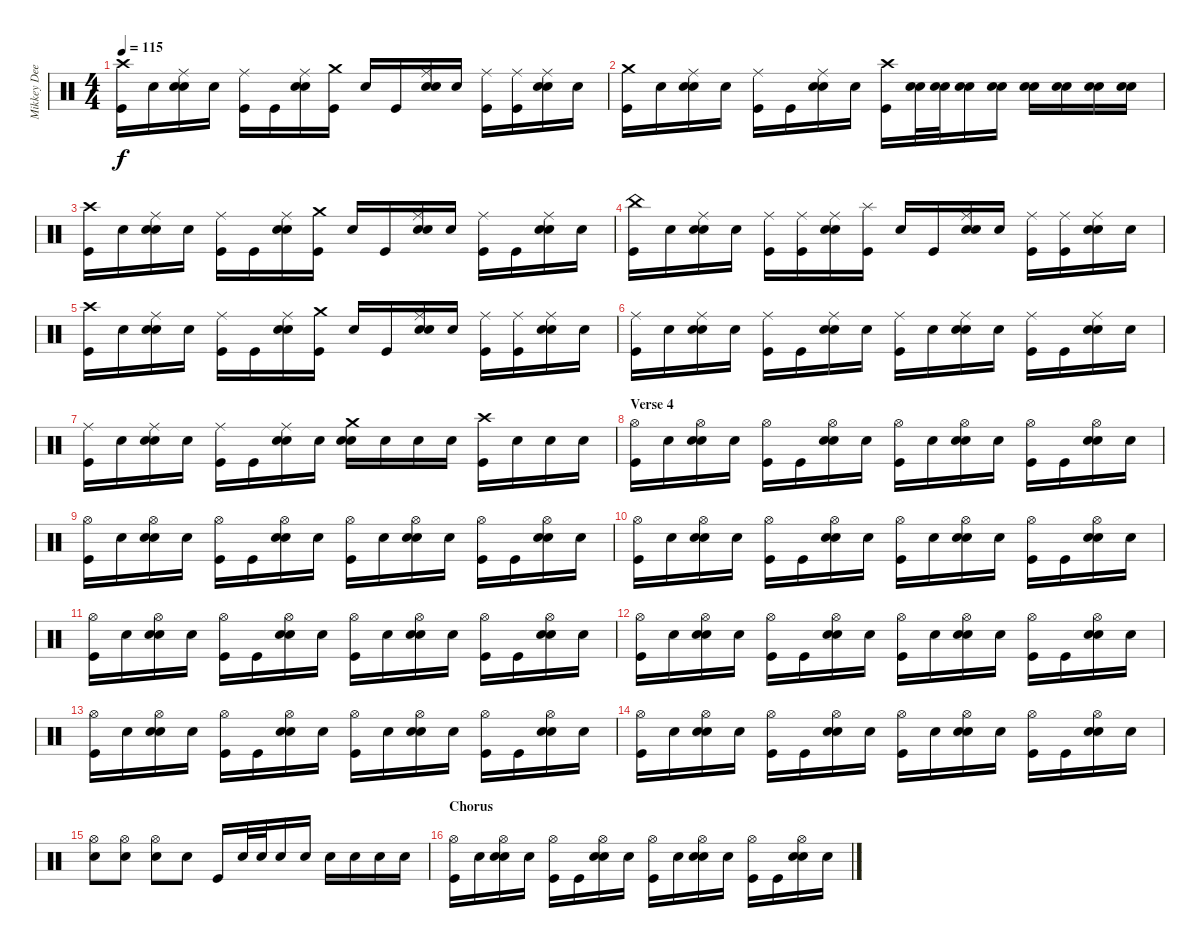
\track ("Mikkey Dee" "Mikkey Dee") {instrument percussion}
\staff {score}
\articulation defaults
\ts (4 4)
\tempo 115
\clef neutral
\ks c
("Crash high (hit)" "Kick (hit)").16{dy f} "Snare (hit)".16 ("Ride (middle)" "Electric Snare (hit)" "Snare (hit)").16 "Snare (hit)".16 ("Ride (middle)" "Kick (hit)").16 "Kick (hit)".16 ("Ride (middle)" "Electric Snare (hit)" "Snare (hit)").16 ("Crash medium (hit)" "Kick (hit)").16 "Snare (hit)".16 "Kick (hit)".16 ("Ride (middle)" "Electric Snare (hit)" "Snare (hit)").16 "Snare (hit)".16 ("Ride (middle)" "Kick (hit)").16 ("Ride (middle)" "Kick (hit)").16 ("Ride (middle)" "Electric Snare (hit)" "Snare (hit)").16 "Snare (hit)".16 |
("Crash medium (hit)" "Kick (hit)").16 "Snare (hit)".16 ("Ride (middle)" "Electric Snare (hit)" "Snare (hit)").16 "Snare (hit)".16 ("Ride (middle)" "Kick (hit)").16 "Kick (hit)".16 ("Ride (middle)" "Electric Snare (hit)" "Snare (hit)").16 "Snare (hit)".16 ("Crash high (hit)" "Kick (hit)").16 ("Electric Snare (hit)" "Snare (hit)").32 ("Electric Snare (hit)" "Snare (hit)").32 ("Electric Snare (hit)" "Snare (hit)").16 ("Electric Snare (hit)" "Snare (hit)").16 ("Electric Snare (hit)" "Snare (hit)").16 ("Electric Snare (hit)" "Snare (hit)").16 ("Electric Snare (hit)" "Snare (hit)").16 ("Electric Snare (hit)" "Snare (hit)").16 |
("Crash high (hit)" "Kick (hit)").16 "Snare (hit)".16 ("Ride (middle)" "Electric Snare (hit)" "Snare (hit)").16 "Snare (hit)".16 ("Ride (middle)" "Kick (hit)").16 "Kick (hit)".16 ("Ride (middle)" "Electric Snare (hit)" "Snare (hit)").16 ("Crash medium (hit)" "Kick (hit)").16 "Snare (hit)".16 "Kick (hit)".16 ("Ride (middle)" "Electric Snare (hit)" "Snare (hit)").16 "Snare (hit)".16 ("Ride (middle)" "Kick (hit)").16 "Kick (hit)".16 ("Ride (middle)" "Electric Snare (hit)" "Snare (hit)").16 "Snare (hit)".16 |
("China (hit)" "Kick (hit)").16 "Snare (hit)".16 ("Ride (middle)" "Electric Snare (hit)" "Snare (hit)").16 "Snare (hit)".16 ("Ride (middle)" "Kick (hit)").16 ("Ride (middle)" "Kick (hit)").16 ("Ride (middle)" "Electric Snare (hit)" "Snare (hit)").16 ("Splash (hit)" "Kick (hit)").16 "Snare (hit)".16 "Kick (hit)".16 ("Ride (middle)" "Electric Snare (hit)" "Snare (hit)").16 "Snare (hit)".16 ("Ride (middle)" "Kick (hit)").16 ("Ride (middle)" "Kick (hit)").16 ("Ride (middle)" "Electric Snare (hit)" "Snare (hit)").16 "Snare (hit)".16 |
("Crash high (hit)" "Kick (hit)").16 "Snare (hit)".16 ("Ride (middle)" "Electric Snare (hit)" "Snare (hit)").16 "Snare (hit)".16 ("Ride (middle)" "Kick (hit)").16 "Kick (hit)".16 ("Ride (middle)" "Electric Snare (hit)" "Snare (hit)").16 ("Crash medium (hit)" "Kick (hit)").16 "Snare (hit)".16 "Kick (hit)".16 ("Ride (middle)" "Electric Snare (hit)" "Snare (hit)").16 "Snare (hit)".16 ("Ride (middle)" "Kick (hit)").16 ("Ride (middle)" "Kick (hit)").16 ("Ride (middle)" "Electric Snare (hit)" "Snare (hit)").16 "Snare (hit)".16 |
("Ride (middle)" "Kick (hit)").16 "Snare (hit)".16 ("Ride (middle)" "Electric Snare (hit)" "Snare (hit)").16 "Snare (hit)".16 ("Ride (middle)" "Kick (hit)").16 "Kick (hit)".16 ("Ride (middle)" "Electric Snare (hit)" "Snare (hit)").16 "Snare (hit)".16 ("Ride (middle)" "Kick (hit)").16 "Snare (hit)".16 ("Ride (middle)" "Electric Snare (hit)" "Snare (hit)").16 "Snare (hit)".16 ("Ride (middle)" "Kick (hit)").16 "Kick (hit)".16 ("Ride (middle)" "Electric Snare (hit)" "Snare (hit)").16 "Snare (hit)".16 |
("Ride (middle)" "Kick (hit)").16 "Snare (hit)".16 ("Ride (middle)" "Electric Snare (hit)" "Snare (hit)").16 "Snare (hit)".16 ("Ride (middle)" "Kick (hit)").16 "Kick (hit)".16 ("Ride (middle)" "Electric Snare (hit)" "Snare (hit)").16 "Snare (hit)".16 ("Crash medium (hit)" "Electric Snare (hit)" "Snare (hit)").16 "Snare (hit)".16 "Snare (hit)".16 "Snare (hit)".16 ("Crash high (hit)" "Kick (hit)").16 "Electric Snare (hit)".16 "Electric Snare (hit)".16 "Electric Snare (hit)".16 |
\section ("" "Verse 4")
("Hi-Hat (open)" "Kick (hit)").16 "Snare (hit)".16 ("Hi-Hat (open)" "Electric Snare (hit)" "Snare (hit)").16 "Snare (hit)".16 ("Hi-Hat (open)" "Kick (hit)").16 "Kick (hit)".16 ("Hi-Hat (open)" "Electric Snare (hit)" "Snare (hit)").16 "Snare (hit)".16 ("Hi-Hat (open)" "Kick (hit)").16 "Snare (hit)".16 ("Hi-Hat (open)" "Electric Snare (hit)" "Snare (hit)").16 "Snare (hit)".16 ("Hi-Hat (open)" "Kick (hit)").16 "Kick (hit)".16 ("Hi-Hat (open)" "Electric Snare (hit)" "Snare (hit)").16 "Snare (hit)".16 |
("Hi-Hat (open)" "Kick (hit)").16 "Snare (hit)".16 ("Hi-Hat (open)" "Electric Snare (hit)" "Snare (hit)").16 "Snare (hit)".16 ("Hi-Hat (open)" "Kick (hit)").16 "Kick (hit)".16 ("Hi-Hat (open)" "Electric Snare (hit)" "Snare (hit)").16 "Snare (hit)".16 ("Hi-Hat (open)" "Kick (hit)").16 "Snare (hit)".16 ("Hi-Hat (open)" "Electric Snare (hit)" "Snare (hit)").16 "Snare (hit)".16 ("Hi-Hat (open)" "Kick (hit)").16 "Kick (hit)".16 ("Hi-Hat (open)" "Electric Snare (hit)" "Snare (hit)").16 "Snare (hit)".16 |
("Hi-Hat (open)" "Kick (hit)").16 "Snare (hit)".16 ("Hi-Hat (open)" "Electric Snare (hit)" "Snare (hit)").16 "Snare (hit)".16 ("Hi-Hat (open)" "Kick (hit)").16 "Kick (hit)".16 ("Hi-Hat (open)" "Electric Snare (hit)" "Snare (hit)").16 "Snare (hit)".16 ("Hi-Hat (open)" "Kick (hit)").16 "Snare (hit)".16 ("Hi-Hat (open)" "Electric Snare (hit)" "Snare (hit)").16 "Snare (hit)".16 ("Hi-Hat (open)" "Kick (hit)").16 "Kick (hit)".16 ("Hi-Hat (open)" "Electric Snare (hit)" "Snare (hit)").16 "Snare (hit)".16 |
("Hi-Hat (open)" "Kick (hit)").16 "Snare (hit)".16 ("Hi-Hat (open)" "Electric Snare (hit)" "Snare (hit)").16 "Snare (hit)".16 ("Hi-Hat (open)" "Kick (hit)").16 "Kick (hit)".16 ("Hi-Hat (open)" "Electric Snare (hit)" "Snare (hit)").16 "Snare (hit)".16 ("Hi-Hat (open)" "Kick (hit)").16 "Snare (hit)".16 ("Hi-Hat (open)" "Electric Snare (hit)" "Snare (hit)").16 "Snare (hit)".16 ("Hi-Hat (open)" "Kick (hit)").16 "Kick (hit)".16 ("Hi-Hat (open)" "Electric Snare (hit)" "Snare (hit)").16 "Snare (hit)".16 |
("Hi-Hat (open)" "Kick (hit)").16 "Snare (hit)".16 ("Hi-Hat (open)" "Electric Snare (hit)" "Snare (hit)").16 "Snare (hit)".16 ("Hi-Hat (open)" "Kick (hit)").16 "Kick (hit)".16 ("Hi-Hat (open)" "Electric Snare (hit)" "Snare (hit)").16 "Snare (hit)".16 ("Hi-Hat (open)" "Kick (hit)").16 "Snare (hit)".16 ("Hi-Hat (open)" "Electric Snare (hit)" "Snare (hit)").16 "Snare (hit)".16 ("Hi-Hat (open)" "Kick (hit)").16 "Kick (hit)".16 ("Hi-Hat (open)" "Electric Snare (hit)" "Snare (hit)").16 "Snare (hit)".16 |
("Hi-Hat (open)" "Kick (hit)").16 "Snare (hit)".16 ("Hi-Hat (open)" "Electric Snare (hit)" "Snare (hit)").16 "Snare (hit)".16 ("Hi-Hat (open)" "Kick (hit)").16 "Kick (hit)".16 ("Hi-Hat (open)" "Electric Snare (hit)" "Snare (hit)").16 "Snare (hit)".16 ("Hi-Hat (open)" "Kick (hit)").16 "Snare (hit)".16 ("Hi-Hat (open)" "Electric Snare (hit)" "Snare (hit)").16 "Snare (hit)".16 ("Hi-Hat (open)" "Kick (hit)").16 "Kick (hit)".16 ("Hi-Hat (open)" "Electric Snare (hit)" "Snare (hit)").16 "Snare (hit)".16 |
("Hi-Hat (open)" "Kick (hit)").16 "Snare (hit)".16 ("Hi-Hat (open)" "Electric Snare (hit)" "Snare (hit)").16 "Snare (hit)".16 ("Hi-Hat (open)" "Kick (hit)").16 "Kick (hit)".16 ("Hi-Hat (open)" "Electric Snare (hit)" "Snare (hit)").16 "Snare (hit)".16 ("Hi-Hat (open)" "Kick (hit)").16 "Snare (hit)".16 ("Hi-Hat (open)" "Electric Snare (hit)" "Snare (hit)").16 "Snare (hit)".16 ("Hi-Hat (open)" "Kick (hit)").16 "Kick (hit)".16 ("Hi-Hat (open)" "Electric Snare (hit)" "Snare (hit)").16 "Snare (hit)".16 |
("Hi-Hat (open)" "Electric Snare (hit)").8 ("Hi-Hat (open)" "Electric Snare (hit)").8 ("Hi-Hat (open)" "Electric Snare (hit)").8 "Snare (hit)".8 "Kick (hit)".16 "Electric Snare (hit)".32 "Electric Snare (hit)".32 "Electric Snare (hit)".16 "Electric Snare (hit)".16 "Electric Snare (hit)".16 "Electric Snare (hit)".16 "Electric Snare (hit)".16 "Electric Snare (hit)".16 |
\section ("" "Chorus")
("Hi-Hat (open)" "Kick (hit)").16 "Snare (hit)".16 ("Hi-Hat (open)" "Electric Snare (hit)" "Snare (hit)").16 "Snare (hit)".16 ("Hi-Hat (open)" "Kick (hit)").16 "Kick (hit)".16 ("Hi-Hat (open)" "Electric Snare (hit)" "Snare (hit)").16 "Snare (hit)".16 ("Hi-Hat (open)" "Kick (hit)").16 "Snare (hit)".16 ("Hi-Hat (open)" "Electric Snare (hit)" "Snare (hit)").16 "Snare (hit)".16 ("Hi-Hat (open)" "Kick (hit)").16 "Kick (hit)".16 ("Hi-Hat (open)" "Electric Snare (hit)" "Snare (hit)").16 "Snare (hit)".16
